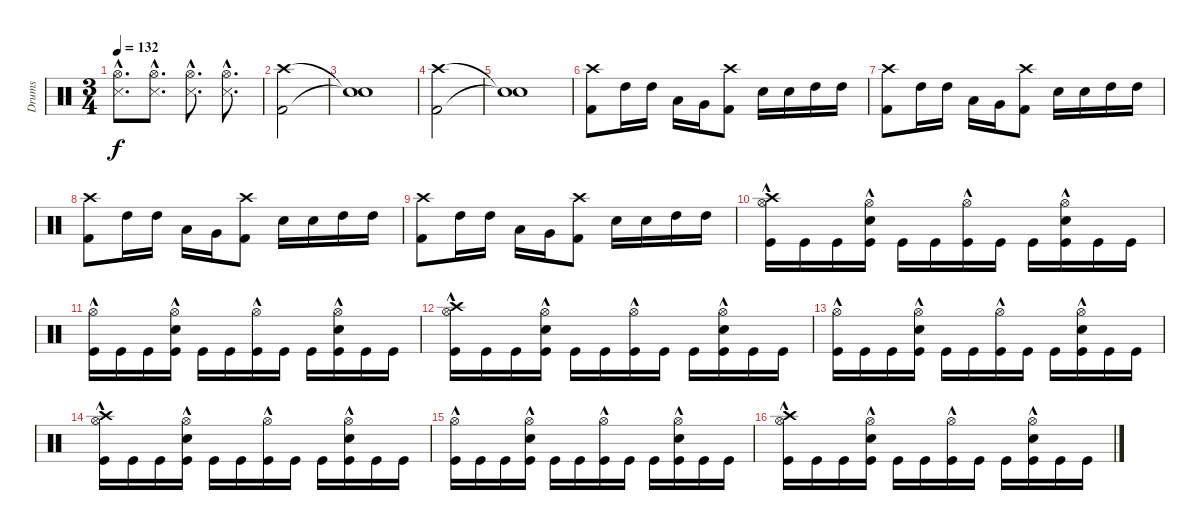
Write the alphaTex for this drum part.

\track ("Drums" "Drums") {instrument percussion}
\staff {score}
\articulation defaults
\ts (3 4)
\tempo 132
\clef neutral
\ks c
("Hi-Hat (open)"{hac} "Metronome (hit)"{hac}).8{d dy f} ("Hi-Hat (open)"{hac} "Metronome (hit)"{hac}).8{d} ("Hi-Hat (open)"{hac} "Metronome (hit)"{hac}).8{d} ("Hi-Hat (open)"{hac} "Metronome (hit)"{hac}).8{d} |
("Crash high (hit)" "Kick (hit) 2").2 |
("Snare (hit)"{t} "Snare (hit)"{t}).1 |
("Crash high (hit)" "Kick (hit) 2").2 |
("Snare (hit)"{t} "Snare (hit)"{t}).1 |
("Crash high (hit)" "Kick (hit) 2").8 "High Tom (hit)".16 "High Tom (hit)".16 "Low Tom (hit)".16 "Very Low Tom (hit)".16 ("Crash high (hit)" "Kick (hit) 2").8 "Snare (hit) 2".16 "Snare (hit) 2".16 "High Tom (hit)".16 "High Tom (hit)".16 |
("Crash high (hit)" "Kick (hit) 2").8 "High Tom (hit)".16 "High Tom (hit)".16 "Low Tom (hit)".16 "Very Low Tom (hit)".16 ("Crash high (hit)" "Kick (hit) 2").8 "Snare (hit) 2".16 "Snare (hit) 2".16 "High Tom (hit)".16 "High Tom (hit)".16 |
("Crash high (hit)" "Kick (hit) 2").8 "High Tom (hit)".16 "High Tom (hit)".16 "Low Tom (hit)".16 "Very Low Tom (hit)".16 ("Crash high (hit)" "Kick (hit) 2").8 "Snare (hit) 2".16 "Snare (hit) 2".16 "High Tom (hit)".16 "High Tom (hit)".16 |
("Crash high (hit)" "Kick (hit) 2").8 "High Tom (hit)".16 "High Tom (hit)".16 "Low Tom (hit)".16 "Very Low Tom (hit)".16 ("Crash high (hit)" "Kick (hit) 2").8 "Snare (hit) 2".16 "Snare (hit) 2".16 "High Tom (hit)".16 "High Tom (hit)".16 |
("Crash high (hit)" "Hi-Hat (open)"{hac} "Kick (hit)").16 "Kick (hit)".16 "Kick (hit)".16 ("Hi-Hat (open)"{hac} "Kick (hit)" "Electric Snare (hit)").16 "Kick (hit)".16 "Kick (hit)".16 ("Hi-Hat (open)"{hac} "Kick (hit)").16 "Kick (hit)".16 "Kick (hit)".16 ("Hi-Hat (open)"{hac} "Kick (hit)" "Electric Snare (hit)").16 "Kick (hit)".16 "Kick (hit)".16 |
("Hi-Hat (open)"{hac} "Kick (hit)").16 "Kick (hit)".16 "Kick (hit)".16 ("Hi-Hat (open)"{hac} "Kick (hit)" "Electric Snare (hit)").16 "Kick (hit)".16 "Kick (hit)".16 ("Hi-Hat (open)"{hac} "Kick (hit)").16 "Kick (hit)".16 "Kick (hit)".16 ("Hi-Hat (open)"{hac} "Kick (hit)" "Electric Snare (hit)").16 "Kick (hit)".16 "Kick (hit)".16 |
("Crash high (hit)" "Hi-Hat (open)"{hac} "Kick (hit)").16 "Kick (hit)".16 "Kick (hit)".16 ("Hi-Hat (open)"{hac} "Kick (hit)" "Electric Snare (hit)").16 "Kick (hit)".16 "Kick (hit)".16 ("Hi-Hat (open)"{hac} "Kick (hit)").16 "Kick (hit)".16 "Kick (hit)".16 ("Hi-Hat (open)"{hac} "Kick (hit)" "Electric Snare (hit)").16 "Kick (hit)".16 "Kick (hit)".16 |
("Hi-Hat (open)"{hac} "Kick (hit)").16 "Kick (hit)".16 "Kick (hit)".16 ("Hi-Hat (open)"{hac} "Kick (hit)" "Electric Snare (hit)").16 "Kick (hit)".16 "Kick (hit)".16 ("Hi-Hat (open)"{hac} "Kick (hit)").16 "Kick (hit)".16 "Kick (hit)".16 ("Hi-Hat (open)"{hac} "Kick (hit)" "Electric Snare (hit)").16 "Kick (hit)".16 "Kick (hit)".16 |
("Crash high (hit)" "Hi-Hat (open)"{hac} "Kick (hit)").16 "Kick (hit)".16 "Kick (hit)".16 ("Hi-Hat (open)"{hac} "Kick (hit)" "Electric Snare (hit)").16 "Kick (hit)".16 "Kick (hit)".16 ("Hi-Hat (open)"{hac} "Kick (hit)").16 "Kick (hit)".16 "Kick (hit)".16 ("Hi-Hat (open)"{hac} "Kick (hit)" "Electric Snare (hit)").16 "Kick (hit)".16 "Kick (hit)".16 |
("Hi-Hat (open)"{hac} "Kick (hit)").16 "Kick (hit)".16 "Kick (hit)".16 ("Hi-Hat (open)"{hac} "Kick (hit)" "Electric Snare (hit)").16 "Kick (hit)".16 "Kick (hit)".16 ("Hi-Hat (open)"{hac} "Kick (hit)").16 "Kick (hit)".16 "Kick (hit)".16 ("Hi-Hat (open)"{hac} "Kick (hit)" "Electric Snare (hit)").16 "Kick (hit)".16 "Kick (hit)".16 |
("Crash high (hit)" "Hi-Hat (open)"{hac} "Kick (hit)").16 "Kick (hit)".16 "Kick (hit)".16 ("Hi-Hat (open)"{hac} "Kick (hit)" "Electric Snare (hit)").16 "Kick (hit)".16 "Kick (hit)".16 ("Hi-Hat (open)"{hac} "Kick (hit)").16 "Kick (hit)".16 "Kick (hit)".16 ("Hi-Hat (open)"{hac} "Kick (hit)" "Electric Snare (hit)").16 "Kick (hit)".16 "Kick (hit)".16
